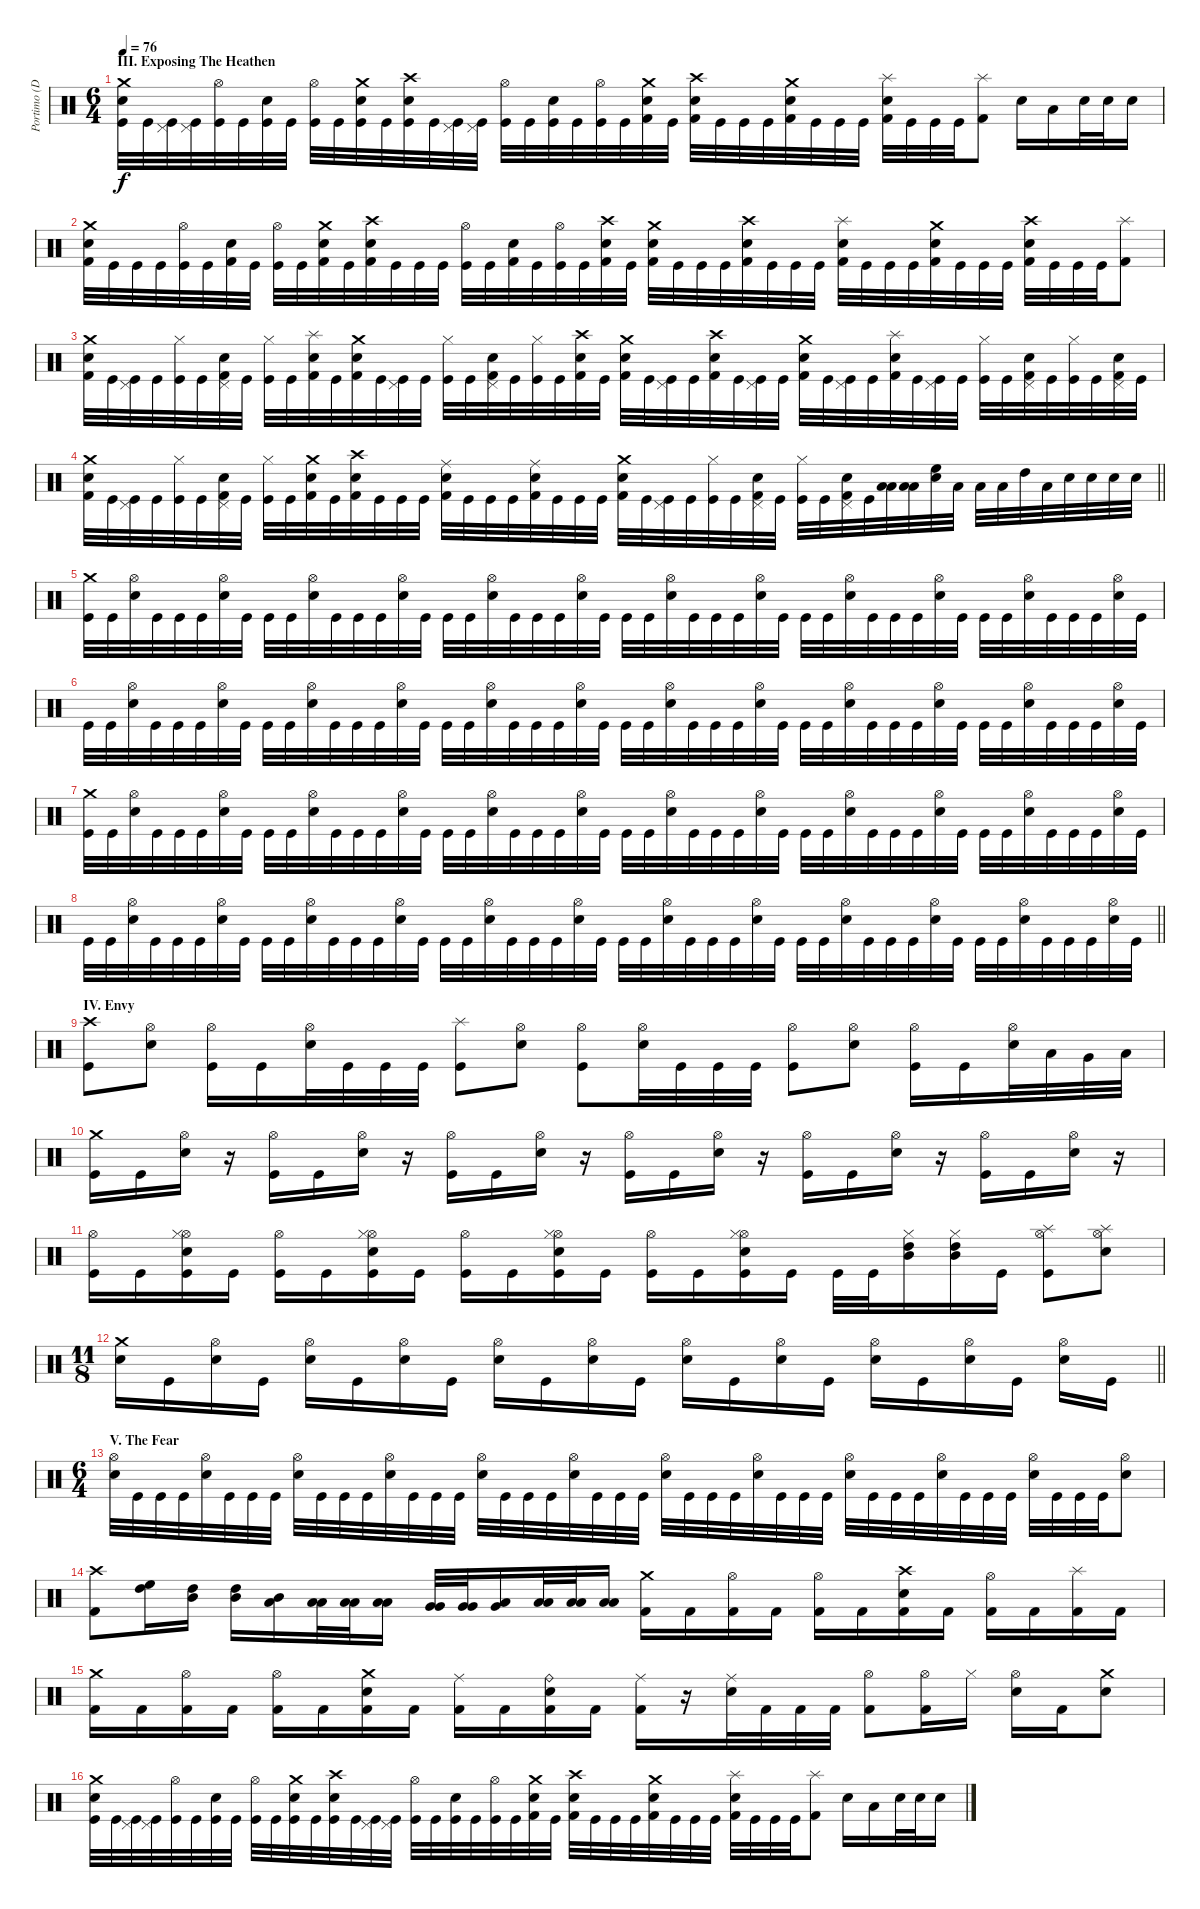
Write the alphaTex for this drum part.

\track ("Portimo (Drums)" "Portimo (D") {mute instrument percussion}
\staff {score}
\articulation defaults
\ts (6 4)
\section ("" "III. Exposing The Heathen")
\tempo 76
\clef neutral
\ks c
("Crash medium (hit)" "Snare (hit) 2" "Kick (hit)").32{dy f} "Kick (hit)".32 ("Pedal Hi-Hat (hit)" "Kick (hit)").32 ("Pedal Hi-Hat (hit)" "Kick (hit)").32 ("Hi-Hat (open)" "Kick (hit)").32 "Kick (hit)".32 ("Snare (hit) 2" "Kick (hit)").32 "Kick (hit)".32 ("Hi-Hat (open)" "Kick (hit)").32 "Kick (hit)".32 ("Crash medium (hit)" "Snare (hit) 2" "Kick (hit)").32 "Kick (hit)".32 ("Crash high (hit)" "Snare (hit) 2" "Kick (hit)").32 "Kick (hit)".32 ("Pedal Hi-Hat (hit)" "Kick (hit)").32 ("Pedal Hi-Hat (hit)" "Kick (hit)").32 ("Hi-Hat (open)" "Kick (hit)").32 "Kick (hit)".32 ("Snare (hit) 2" "Kick (hit)").32 "Kick (hit)".32 ("Hi-Hat (open)" "Kick (hit)").32 "Kick (hit)".32 ("Crash medium (hit)" "Snare (hit) 2" "Kick (hit) 2").32 "Kick (hit)".32 ("Crash high (hit)" "Snare (hit) 2" "Kick (hit) 2").32 "Kick (hit)".32 "Kick (hit)".32 "Kick (hit)".32 ("Crash medium (hit)" "Snare (hit) 2" "Kick (hit) 2").32 "Kick (hit)".32 "Kick (hit)".32 "Kick (hit)".32 ("Splash (hit)" "Snare (hit) 2" "Kick (hit) 2").32 "Kick (hit)".32 "Kick (hit)".32 "Kick (hit)".32 ("Splash (hit)" "Kick (hit) 2").8 "Snare (hit) 2".16 "Low Tom (hit)".16 "Snare (hit) 2".32 "Snare (hit) 2".32 "Snare (hit) 2".16 |
("Crash medium (hit)" "Snare (hit) 2" "Kick (hit) 2").32 "Kick (hit)".32 "Kick (hit)".32 "Kick (hit)".32 ("Hi-Hat (open)" "Kick (hit)").32 "Kick (hit)".32 ("Snare (hit) 2" "Kick (hit) 2").32 "Kick (hit)".32 ("Hi-Hat (open)" "Kick (hit)").32 "Kick (hit)".32 ("Crash medium (hit)" "Snare (hit) 2" "Kick (hit) 2").32 "Kick (hit)".32 ("Crash high (hit)" "Snare (hit) 2" "Kick (hit) 2").32 "Kick (hit)".32 "Kick (hit)".32 "Kick (hit)".32 ("Hi-Hat (open)" "Kick (hit)").32 "Kick (hit)".32 ("Snare (hit) 2" "Kick (hit) 2").32 "Kick (hit)".32 ("Hi-Hat (open)" "Kick (hit)").32 "Kick (hit)".32 ("Crash high (hit)" "Snare (hit) 2" "Kick (hit) 2").32 "Kick (hit)".32 ("Crash medium (hit)" "Snare (hit) 2" "Kick (hit) 2").32 "Kick (hit)".32 "Kick (hit)".32 "Kick (hit)".32 ("Crash high (hit)" "Snare (hit) 2" "Kick (hit) 2").32 "Kick (hit)".32 "Kick (hit)".32 "Kick (hit)".32 ("Splash (hit)" "Snare (hit) 2" "Kick (hit) 2").32 "Kick (hit)".32 "Kick (hit)".32 "Kick (hit)".32 ("Crash medium (hit)" "Snare (hit) 2" "Kick (hit) 2").32 "Kick (hit)".32 "Kick (hit)".32 "Kick (hit)".32 ("Crash high (hit)" "Snare (hit) 2" "Kick (hit) 2").32 "Kick (hit)".32 "Kick (hit)".32 "Kick (hit)".32 ("Splash (hit)" "Kick (hit) 2").8 |
("Crash medium (hit)" "Snare (hit) 2" "Kick (hit) 2").32 "Kick (hit)".32 ("Pedal Hi-Hat (hit)" "Kick (hit)").32 "Kick (hit)".32 ("Hi-Hat (closed)" "Kick (hit)").32 "Kick (hit)".32 ("Pedal Hi-Hat (hit)" "Snare (hit) 2" "Kick (hit) 2").32 "Kick (hit)".32 ("Hi-Hat (closed)" "Kick (hit)").32 "Kick (hit)".32 ("Splash (hit)" "Snare (hit) 2" "Kick (hit) 2").32 "Kick (hit)".32 ("Crash medium (hit)" "Snare (hit) 2" "Kick (hit) 2").32 "Kick (hit)".32 ("Pedal Hi-Hat (hit)" "Kick (hit)").32 "Kick (hit)".32 ("Hi-Hat (closed)" "Kick (hit)").32 "Kick (hit)".32 ("Pedal Hi-Hat (hit)" "Snare (hit) 2" "Kick (hit) 2").32 "Kick (hit)".32 ("Hi-Hat (closed)" "Kick (hit)").32 "Kick (hit)".32 ("Crash high (hit)" "Snare (hit) 2" "Kick (hit) 2").32 "Kick (hit)".32 ("Crash medium (hit)" "Snare (hit) 2" "Kick (hit) 2").32 "Kick (hit)".32 ("Pedal Hi-Hat (hit)" "Kick (hit)").32 "Kick (hit)".32 ("Crash high (hit)" "Snare (hit) 2" "Kick (hit) 2").32 "Kick (hit)".32 ("Pedal Hi-Hat (hit)" "Kick (hit)").32 "Kick (hit)".32 ("Crash medium (hit)" "Snare (hit) 2" "Kick (hit) 2").32 "Kick (hit)".32 ("Pedal Hi-Hat (hit)" "Kick (hit)").32 "Kick (hit)".32 ("Splash (hit)" "Snare (hit) 2" "Kick (hit) 2").32 "Kick (hit)".32 ("Pedal Hi-Hat (hit)" "Kick (hit)").32 "Kick (hit)".32 ("Hi-Hat (closed)" "Kick (hit)").32 "Kick (hit)".32 ("Pedal Hi-Hat (hit)" "Snare (hit) 2" "Kick (hit) 2").32 "Kick (hit)".32 ("Hi-Hat (closed)" "Kick (hit)").32 "Kick (hit)".32 ("Pedal Hi-Hat (hit)" "Snare (hit) 2" "Kick (hit) 2").32 "Kick (hit)".32 |
\barLineRight lightlight
("Crash medium (hit)" "Snare (hit) 2" "Kick (hit) 2").32 "Kick (hit)".32 ("Pedal Hi-Hat (hit)" "Kick (hit)").32 "Kick (hit)".32 ("Hi-Hat (closed)" "Kick (hit)").32 "Kick (hit)".32 ("Pedal Hi-Hat (hit)" "Snare (hit) 2" "Kick (hit) 2").32 "Kick (hit)".32 ("Hi-Hat (closed)" "Kick (hit)").32 "Kick (hit)".32 ("Crash medium (hit)" "Snare (hit) 2" "Kick (hit) 2").32 "Kick (hit)".32 ("Crash high (hit)" "Snare (hit) 2" "Kick (hit) 2").32 "Kick (hit)".32 "Kick (hit)".32 "Kick (hit)".32 ("Ride (middle)" "Snare (hit) 2" "Kick (hit) 2").32 "Kick (hit)".32 "Kick (hit)".32 "Kick (hit)".32 ("Ride (middle)" "Snare (hit) 2" "Kick (hit) 2").32 "Kick (hit)".32 "Kick (hit)".32 "Kick (hit)".32 ("Crash medium (hit)" "Snare (hit) 2" "Kick (hit) 2").32 "Kick (hit)".32 ("Pedal Hi-Hat (hit)" "Kick (hit)").32 "Kick (hit)".32 ("Hi-Hat (closed)" "Kick (hit)").32 "Kick (hit)".32 ("Pedal Hi-Hat (hit)" "Snare (hit) 2" "Kick (hit) 2").32 "Kick (hit)".32 ("Hi-Hat (closed)" "Kick (hit)").32 "Kick (hit)".32 ("Pedal Hi-Hat (hit)" "Snare (hit) 2" "Kick (hit) 2").32 "Kick (hit)".32 ("Low Floor Tom (hit)" "Low Tom (hit)").32 ("Low Floor Tom (hit)" "Low Tom (hit)").32 ("Electric Snare (hit)" "High Floor Tom (hit)").32 "Low Tom (hit)".32 "Low Tom (hit)".32 "Low Tom (hit)".32 "High Tom (hit)".32 "Low Tom (hit)".32 "Snare (hit) 2".32 "Snare (hit) 2".32 "Snare (hit) 2".32 "Snare (hit) 2".32 |
("Crash medium (hit)" "Kick (hit)").32 "Kick (hit)".32 ("Hi-Hat (open)" "Snare (hit) 2").32 "Kick (hit)".32 "Kick (hit)".32 "Kick (hit)".32 ("Hi-Hat (open)" "Snare (hit) 2").32 "Kick (hit)".32 "Kick (hit)".32 "Kick (hit)".32 ("Hi-Hat (open)" "Snare (hit) 2").32 "Kick (hit)".32 "Kick (hit)".32 "Kick (hit)".32 ("Hi-Hat (open)" "Snare (hit) 2").32 "Kick (hit)".32 "Kick (hit)".32 "Kick (hit)".32 ("Hi-Hat (open)" "Snare (hit) 2").32 "Kick (hit)".32 "Kick (hit)".32 "Kick (hit)".32 ("Hi-Hat (open)" "Snare (hit) 2").32 "Kick (hit)".32 "Kick (hit)".32 "Kick (hit)".32 ("Hi-Hat (open)" "Snare (hit) 2").32 "Kick (hit)".32 "Kick (hit)".32 "Kick (hit)".32 ("Hi-Hat (open)" "Snare (hit) 2").32 "Kick (hit)".32 "Kick (hit)".32 "Kick (hit)".32 ("Hi-Hat (open)" "Snare (hit) 2").32 "Kick (hit)".32 "Kick (hit)".32 "Kick (hit)".32 ("Hi-Hat (open)" "Snare (hit) 2").32 "Kick (hit)".32 "Kick (hit)".32 "Kick (hit)".32 ("Hi-Hat (open)" "Snare (hit) 2").32 "Kick (hit)".32 "Kick (hit)".32 "Kick (hit)".32 ("Hi-Hat (open)" "Snare (hit) 2").32 "Kick (hit)".32 |
"Kick (hit)".32 "Kick (hit)".32 ("Hi-Hat (open)" "Snare (hit) 2").32 "Kick (hit)".32 "Kick (hit)".32 "Kick (hit)".32 ("Hi-Hat (open)" "Snare (hit) 2").32 "Kick (hit)".32 "Kick (hit)".32 "Kick (hit)".32 ("Hi-Hat (open)" "Snare (hit) 2").32 "Kick (hit)".32 "Kick (hit)".32 "Kick (hit)".32 ("Hi-Hat (open)" "Snare (hit) 2").32 "Kick (hit)".32 "Kick (hit)".32 "Kick (hit)".32 ("Hi-Hat (open)" "Snare (hit) 2").32 "Kick (hit)".32 "Kick (hit)".32 "Kick (hit)".32 ("Hi-Hat (open)" "Snare (hit) 2").32 "Kick (hit)".32 "Kick (hit)".32 "Kick (hit)".32 ("Hi-Hat (open)" "Snare (hit) 2").32 "Kick (hit)".32 "Kick (hit)".32 "Kick (hit)".32 ("Hi-Hat (open)" "Snare (hit) 2").32 "Kick (hit)".32 "Kick (hit)".32 "Kick (hit)".32 ("Hi-Hat (open)" "Snare (hit) 2").32 "Kick (hit)".32 "Kick (hit)".32 "Kick (hit)".32 ("Hi-Hat (open)" "Snare (hit) 2").32 "Kick (hit)".32 "Kick (hit)".32 "Kick (hit)".32 ("Hi-Hat (open)" "Snare (hit) 2").32 "Kick (hit)".32 "Kick (hit)".32 "Kick (hit)".32 ("Hi-Hat (open)" "Snare (hit) 2").32 "Kick (hit)".32 |
("Crash medium (hit)" "Kick (hit)").32 "Kick (hit)".32 ("Hi-Hat (open)" "Snare (hit) 2").32 "Kick (hit)".32 "Kick (hit)".32 "Kick (hit)".32 ("Hi-Hat (open)" "Snare (hit) 2").32 "Kick (hit)".32 "Kick (hit)".32 "Kick (hit)".32 ("Hi-Hat (open)" "Snare (hit) 2").32 "Kick (hit)".32 "Kick (hit)".32 "Kick (hit)".32 ("Hi-Hat (open)" "Snare (hit) 2").32 "Kick (hit)".32 "Kick (hit)".32 "Kick (hit)".32 ("Hi-Hat (open)" "Snare (hit) 2").32 "Kick (hit)".32 "Kick (hit)".32 "Kick (hit)".32 ("Hi-Hat (open)" "Snare (hit) 2").32 "Kick (hit)".32 "Kick (hit)".32 "Kick (hit)".32 ("Hi-Hat (open)" "Snare (hit) 2").32 "Kick (hit)".32 "Kick (hit)".32 "Kick (hit)".32 ("Hi-Hat (open)" "Snare (hit) 2").32 "Kick (hit)".32 "Kick (hit)".32 "Kick (hit)".32 ("Hi-Hat (open)" "Snare (hit) 2").32 "Kick (hit)".32 "Kick (hit)".32 "Kick (hit)".32 ("Hi-Hat (open)" "Snare (hit) 2").32 "Kick (hit)".32 "Kick (hit)".32 "Kick (hit)".32 ("Hi-Hat (open)" "Snare (hit) 2").32 "Kick (hit)".32 "Kick (hit)".32 "Kick (hit)".32 ("Hi-Hat (open)" "Snare (hit) 2").32 "Kick (hit)".32 |
\barLineRight lightlight "Kick (hit)".32 "Kick (hit)".32
("Hi-Hat (open)" "Snare (hit) 2").32 "Kick (hit)".32 "Kick (hit)".32 "Kick (hit)".32 ("Hi-Hat (open)" "Snare (hit) 2").32 "Kick (hit)".32 "Kick (hit)".32 "Kick (hit)".32 ("Hi-Hat (open)" "Snare (hit) 2").32 "Kick (hit)".32 "Kick (hit)".32 "Kick (hit)".32 ("Hi-Hat (open)" "Snare (hit) 2").32 "Kick (hit)".32 "Kick (hit)".32 "Kick (hit)".32 ("Hi-Hat (open)" "Snare (hit) 2").32 "Kick (hit)".32 "Kick (hit)".32 "Kick (hit)".32 ("Hi-Hat (open)" "Snare (hit) 2").32 "Kick (hit)".32 "Kick (hit)".32 "Kick (hit)".32 ("Hi-Hat (open)" "Snare (hit) 2").32 "Kick (hit)".32 "Kick (hit)".32 "Kick (hit)".32 ("Hi-Hat (open)" "Snare (hit) 2").32 "Kick (hit)".32 "Kick (hit)".32 "Kick (hit)".32 ("Hi-Hat (open)" "Snare (hit) 2").32 "Kick (hit)".32 "Kick (hit)".32 "Kick (hit)".32 ("Hi-Hat (open)" "Snare (hit) 2").32 "Kick (hit)".32 "Kick (hit)".32 "Kick (hit)".32 ("Hi-Hat (open)" "Snare (hit) 2").32 "Kick (hit)".32 "Kick (hit)".32 "Kick (hit)".32 ("Hi-Hat (open)" "Snare (hit) 2").32 "Kick (hit)".32 |
\section ("" "IV. Envy")
("Crash high (hit)" "Kick (hit)").8 ("Hi-Hat (open)" "Snare (hit) 2").8 ("Hi-Hat (open)" "Kick (hit)").16 "Kick (hit)".16 ("Hi-Hat (open)" "Snare (hit) 2").32 "Kick (hit)".32 "Kick (hit)".32 "Kick (hit)".32 ("Splash (hit)" "Kick (hit)").8 ("Hi-Hat (open)" "Snare (hit) 2").8 ("Hi-Hat (open)" "Kick (hit)").8 ("Hi-Hat (open)" "Snare (hit) 2").32 "Kick (hit)".32 "Kick (hit)".32 "Kick (hit)".32 ("Hi-Hat (open)" "Kick (hit)").8 ("Hi-Hat (open)" "Snare (hit) 2").8 ("Hi-Hat (open)" "Kick (hit)").16 "Kick (hit)".16 ("Hi-Hat (open)" "Snare (hit) 2").32 "Low Tom (hit)".32 "Very Low Tom (hit)".32 "Low Tom (hit)".32 |
("Crash medium (hit)" "Kick (hit)").16 "Kick (hit)".16 ("Hi-Hat (open)" "Snare (hit) 2").16 r.16 ("Hi-Hat (open)" "Kick (hit)").16 "Kick (hit)".16 ("Hi-Hat (open)" "Snare (hit) 2").16 r.16 ("Hi-Hat (open)" "Kick (hit)").16 "Kick (hit)".16 ("Hi-Hat (open)" "Snare (hit) 2").16 r.16 ("Hi-Hat (open)" "Kick (hit)").16 "Kick (hit)".16 ("Hi-Hat (open)" "Snare (hit) 2").16 r.16 ("Hi-Hat (open)" "Kick (hit)").16 "Kick (hit)".16 ("Hi-Hat (open)" "Snare (hit) 2").16 r.16 ("Hi-Hat (open)" "Kick (hit)").16 "Kick (hit)".16 ("Hi-Hat (open)" "Snare (hit) 2").16 r.16 |
("Hi-Hat (open)" "Kick (hit)").16 "Kick (hit)".16 ("Hi-Hat (open)" "Hi-Hat (closed)" "Snare (hit) 2" "Kick (hit)").16 "Kick (hit)".16 ("Hi-Hat (open)" "Kick (hit)").16 "Kick (hit)".16 ("Hi-Hat (open)" "Hi-Hat (closed)" "Snare (hit) 2" "Kick (hit)").16 "Kick (hit)".16 ("Hi-Hat (open)" "Kick (hit)").16 "Kick (hit)".16 ("Hi-Hat (open)" "Hi-Hat (closed)" "Snare (hit) 2" "Kick (hit)").16 "Kick (hit)".16 ("Hi-Hat (open)" "Kick (hit)").16 "Kick (hit)".16 ("Hi-Hat (open)" "Hi-Hat (closed)" "Snare (hit) 2" "Kick (hit)").16 "Kick (hit)".16 "Kick (hit)".32 "Kick (hit)".32 ("Hi-Hat (closed)" "High Tom (hit)" "Mid Tom (hit)").16 ("Hi-Hat (closed)" "High Tom (hit)" "Mid Tom (hit)").16 "Kick (hit)".16 ("Hi-Hat (open)" "Splash (hit)" "Kick (hit)").8 ("Hi-Hat (open)" "Splash (hit)" "Snare (hit) 2").8 |
\ts (11 8)
\barLineRight lightlight
("Crash medium (hit)" "Snare (hit) 2").16 "Kick (hit)".16 ("Hi-Hat (open)" "Snare (hit) 2").16 "Kick (hit)".16 ("Hi-Hat (open)" "Snare (hit) 2").16 "Kick (hit)".16 ("Hi-Hat (open)" "Snare (hit) 2").16 "Kick (hit)".16 ("Hi-Hat (open)" "Snare (hit) 2").16 "Kick (hit)".16 ("Hi-Hat (open)" "Snare (hit) 2").16 "Kick (hit)".16 ("Hi-Hat (open)" "Snare (hit) 2").16 "Kick (hit)".16 ("Hi-Hat (open)" "Snare (hit) 2").16 "Kick (hit)".16 ("Hi-Hat (open)" "Snare (hit) 2").16 "Kick (hit)".16 ("Hi-Hat (open)" "Snare (hit) 2").16 "Kick (hit)".16 ("Hi-Hat (open)" "Snare (hit) 2").16 "Kick (hit)".16 |
\ts (6 4)
\section ("" "V. The Fear")
("Hi-Hat (open)" "Snare (hit) 2").32 "Kick (hit)".32 "Kick (hit)".32 "Kick (hit)".32 ("Hi-Hat (open)" "Snare (hit) 2").32 "Kick (hit)".32 "Kick (hit)".32 "Kick (hit)".32 ("Hi-Hat (open)" "Snare (hit) 2").32 "Kick (hit)".32 "Kick (hit)".32 "Kick (hit)".32 ("Hi-Hat (open)" "Snare (hit) 2").32 "Kick (hit)".32 "Kick (hit)".32 "Kick (hit)".32 ("Hi-Hat (open)" "Snare (hit) 2").32 "Kick (hit)".32 "Kick (hit)".32 "Kick (hit)".32 ("Hi-Hat (open)" "Snare (hit) 2").32 "Kick (hit)".32 "Kick (hit)".32 "Kick (hit)".32 ("Hi-Hat (open)" "Snare (hit) 2").32 "Kick (hit)".32 "Kick (hit)".32 "Kick (hit)".32 ("Hi-Hat (open)" "Snare (hit) 2").32 "Kick (hit)".32 "Kick (hit)".32 "Kick (hit)".32 ("Hi-Hat (open)" "Snare (hit) 2").32 "Kick (hit)".32 "Kick (hit)".32 "Kick (hit)".32 ("Hi-Hat (open)" "Snare (hit) 2").32 "Kick (hit)".32 "Kick (hit)".32 "Kick (hit)".32 ("Hi-Hat (open)" "Snare (hit) 2").32 "Kick (hit)".32 "Kick (hit)".32 "Kick (hit)".32 ("Hi-Hat (open)" "Snare (hit) 2").8 |
("Crash high (hit)" "Kick (hit) 2").8 ("High Floor Tom (hit)" "High Tom (hit)").16{bd 60} ("High Tom (hit)" "Mid Tom (hit)").16{bd 60} ("High Tom (hit)" "Mid Tom (hit)").16{bd 60} ("Low Tom (hit)" "Mid Tom (hit)").16{bd 60} ("Low Tom (hit)" "Low Tom (hit)").32{bd 60} ("Low Tom (hit)" "Low Tom (hit)").32{bd 60} ("Low Tom (hit)" "Low Tom (hit)").16{bd 60} ("Very Low Tom (hit)" "Very Low Tom (hit)").32{bd 60} ("Very Low Tom (hit)" "Very Low Tom (hit)").32{bd 60} ("Low Floor Tom (hit)" "Very Low Tom (hit)").16{bd 60} ("Low Floor Tom (hit)" "Low Floor Tom (hit)").32{bd 60} ("Low Floor Tom (hit)" "Low Floor Tom (hit)").32{bd 60} ("Low Floor Tom (hit)" "Low Floor Tom (hit)").16{bd 60} ("Crash medium (hit)" "Kick (hit) 2").16 "Kick (hit) 2".16 ("Hi-Hat (open)" "Kick (hit) 2").16 "Kick (hit) 2".16 ("Hi-Hat (open)" "Kick (hit) 2").16 "Kick (hit) 2".16 ("Crash high (hit)" "Snare (hit) 2" "Kick (hit) 2").16 "Kick (hit) 2".16 ("Hi-Hat (open)" "Kick (hit) 2").16 "Kick (hit) 2".16 ("Splash (hit)" "Kick (hit) 2").16 "Kick (hit) 2".16 |
("Crash medium (hit)" "Kick (hit) 2").16 "Kick (hit) 2".16 ("Hi-Hat (open)" "Kick (hit) 2").16 "Kick (hit) 2".16 ("Hi-Hat (open)" "Kick (hit) 2").16 "Kick (hit) 2".16 ("Crash medium (hit)" "Snare (hit) 2" "Kick (hit) 2").16 "Kick (hit) 2".16 ("Ride (middle)" "Kick (hit) 2").16 "Kick (hit) 2".16 ("Ride (bell)" "Snare (hit) 2" "Kick (hit) 2").16 "Kick (hit) 2".16 ("Ride (middle)" "Kick (hit) 2").16 r.16 ("Ride (middle)" "Snare (hit) 2").32 "Kick (hit) 2".32 "Kick (hit) 2".32 "Kick (hit) 2".32 ("Hi-Hat (open)" "Kick (hit) 2").8 ("Hi-Hat (open)" "Kick (hit) 2").16 "Hi-Hat (closed)".16 ("Hi-Hat (open)" "Snare (hit) 2").16 "Kick (hit) 2".16 ("Crash medium (hit)" "Snare (hit) 2").8 |
("Crash medium (hit)" "Snare (hit) 2" "Kick (hit)").32 "Kick (hit)".32 ("Pedal Hi-Hat (hit)" "Kick (hit)").32 ("Pedal Hi-Hat (hit)" "Kick (hit)").32 ("Hi-Hat (open)" "Kick (hit)").32 "Kick (hit)".32 ("Snare (hit) 2" "Kick (hit)").32 "Kick (hit)".32 ("Hi-Hat (open)" "Kick (hit)").32 "Kick (hit)".32 ("Crash medium (hit)" "Snare (hit) 2" "Kick (hit)").32 "Kick (hit)".32 ("Crash high (hit)" "Snare (hit) 2" "Kick (hit)").32 "Kick (hit)".32 ("Pedal Hi-Hat (hit)" "Kick (hit)").32 ("Pedal Hi-Hat (hit)" "Kick (hit)").32 ("Hi-Hat (open)" "Kick (hit)").32 "Kick (hit)".32 ("Snare (hit) 2" "Kick (hit)").32 "Kick (hit)".32 ("Hi-Hat (open)" "Kick (hit)").32 "Kick (hit)".32 ("Crash medium (hit)" "Snare (hit) 2" "Kick (hit) 2").32 "Kick (hit)".32 ("Crash high (hit)" "Snare (hit) 2" "Kick (hit) 2").32 "Kick (hit)".32 "Kick (hit)".32 "Kick (hit)".32 ("Crash medium (hit)" "Snare (hit) 2" "Kick (hit) 2").32 "Kick (hit)".32 "Kick (hit)".32 "Kick (hit)".32 ("Splash (hit)" "Snare (hit) 2" "Kick (hit) 2").32 "Kick (hit)".32 "Kick (hit)".32 "Kick (hit)".32 ("Splash (hit)" "Kick (hit) 2").8 "Snare (hit) 2".16 "Low Tom (hit)".16 "Snare (hit) 2".32 "Snare (hit) 2".32 "Snare (hit) 2".16
